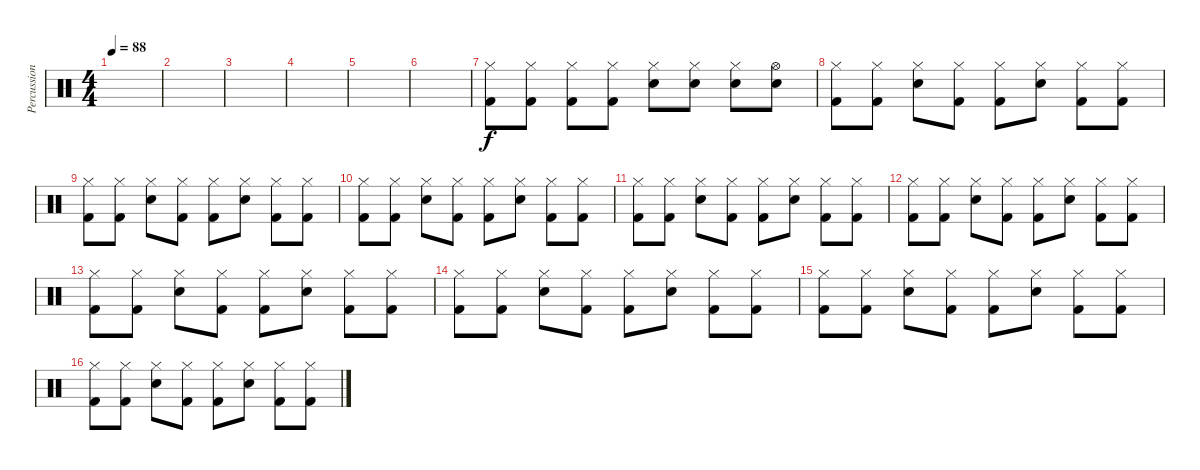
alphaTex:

\track ("Percussion" "Percussion") {instrument percussion}
\staff {score}
\articulation defaults
\ts (4 4)
\tempo 88
\clef neutral
\ks c
|
|
|
|
|
|
("Hi-Hat (closed)" "Kick (hit) 2").8 ("Hi-Hat (closed)" "Kick (hit) 2").8 ("Hi-Hat (closed)" "Kick (hit) 2").8 ("Hi-Hat (closed)" "Kick (hit) 2").8 ("Hi-Hat (closed)" "Snare (hit) 2").8 ("Hi-Hat (closed)" "Snare (hit) 2").8 ("Hi-Hat (closed)" "Snare (hit) 2").8 ("Hi-Hat (open)" "Snare (hit) 2").8 |
("Hi-Hat (closed)" "Kick (hit) 2").8 ("Hi-Hat (closed)" "Kick (hit) 2").8 ("Hi-Hat (closed)" "Snare (hit) 2").8 ("Hi-Hat (closed)" "Kick (hit) 2").8 ("Hi-Hat (closed)" "Kick (hit) 2").8 ("Hi-Hat (closed)" "Snare (hit) 2").8 ("Hi-Hat (closed)" "Kick (hit) 2").8 ("Hi-Hat (closed)" "Kick (hit) 2").8 |
("Hi-Hat (closed)" "Kick (hit) 2").8 ("Hi-Hat (closed)" "Kick (hit) 2").8 ("Hi-Hat (closed)" "Snare (hit) 2").8 ("Hi-Hat (closed)" "Kick (hit) 2").8 ("Hi-Hat (closed)" "Kick (hit) 2").8 ("Hi-Hat (closed)" "Snare (hit) 2").8 ("Hi-Hat (closed)" "Kick (hit) 2").8 ("Hi-Hat (closed)" "Kick (hit) 2").8 |
("Hi-Hat (closed)" "Kick (hit) 2").8 ("Hi-Hat (closed)" "Kick (hit) 2").8 ("Hi-Hat (closed)" "Snare (hit) 2").8 ("Hi-Hat (closed)" "Kick (hit) 2").8 ("Hi-Hat (closed)" "Kick (hit) 2").8 ("Hi-Hat (closed)" "Snare (hit) 2").8 ("Hi-Hat (closed)" "Kick (hit) 2").8 ("Hi-Hat (closed)" "Kick (hit) 2").8 |
("Hi-Hat (closed)" "Kick (hit) 2").8 ("Hi-Hat (closed)" "Kick (hit) 2").8 ("Hi-Hat (closed)" "Snare (hit) 2").8 ("Hi-Hat (closed)" "Kick (hit) 2").8 ("Hi-Hat (closed)" "Kick (hit) 2").8 ("Hi-Hat (closed)" "Snare (hit) 2").8 ("Hi-Hat (closed)" "Kick (hit) 2").8 ("Hi-Hat (closed)" "Kick (hit) 2").8 |
("Hi-Hat (closed)" "Kick (hit) 2").8 ("Hi-Hat (closed)" "Kick (hit) 2").8 ("Hi-Hat (closed)" "Snare (hit) 2").8 ("Hi-Hat (closed)" "Kick (hit) 2").8 ("Hi-Hat (closed)" "Kick (hit) 2").8 ("Hi-Hat (closed)" "Snare (hit) 2").8 ("Hi-Hat (closed)" "Kick (hit) 2").8 ("Hi-Hat (closed)" "Kick (hit) 2").8 |
("Hi-Hat (closed)" "Kick (hit) 2").8 ("Hi-Hat (closed)" "Kick (hit) 2").8 ("Hi-Hat (closed)" "Snare (hit) 2").8 ("Hi-Hat (closed)" "Kick (hit) 2").8 ("Hi-Hat (closed)" "Kick (hit) 2").8 ("Hi-Hat (closed)" "Snare (hit) 2").8 ("Hi-Hat (closed)" "Kick (hit) 2").8 ("Hi-Hat (closed)" "Kick (hit) 2").8 |
("Hi-Hat (closed)" "Kick (hit) 2").8 ("Hi-Hat (closed)" "Kick (hit) 2").8 ("Hi-Hat (closed)" "Snare (hit) 2").8 ("Hi-Hat (closed)" "Kick (hit) 2").8 ("Hi-Hat (closed)" "Kick (hit) 2").8 ("Hi-Hat (closed)" "Snare (hit) 2").8 ("Hi-Hat (closed)" "Kick (hit) 2").8 ("Hi-Hat (closed)" "Kick (hit) 2").8 |
("Hi-Hat (closed)" "Kick (hit) 2").8 ("Hi-Hat (closed)" "Kick (hit) 2").8 ("Hi-Hat (closed)" "Snare (hit) 2").8 ("Hi-Hat (closed)" "Kick (hit) 2").8 ("Hi-Hat (closed)" "Kick (hit) 2").8 ("Hi-Hat (closed)" "Snare (hit) 2").8 ("Hi-Hat (closed)" "Kick (hit) 2").8 ("Hi-Hat (closed)" "Kick (hit) 2").8 |
("Hi-Hat (closed)" "Kick (hit) 2").8 ("Hi-Hat (closed)" "Kick (hit) 2").8 ("Hi-Hat (closed)" "Snare (hit) 2").8 ("Hi-Hat (closed)" "Kick (hit) 2").8 ("Hi-Hat (closed)" "Kick (hit) 2").8 ("Hi-Hat (closed)" "Snare (hit) 2").8 ("Hi-Hat (closed)" "Kick (hit) 2").8 ("Hi-Hat (closed)" "Kick (hit) 2").8
